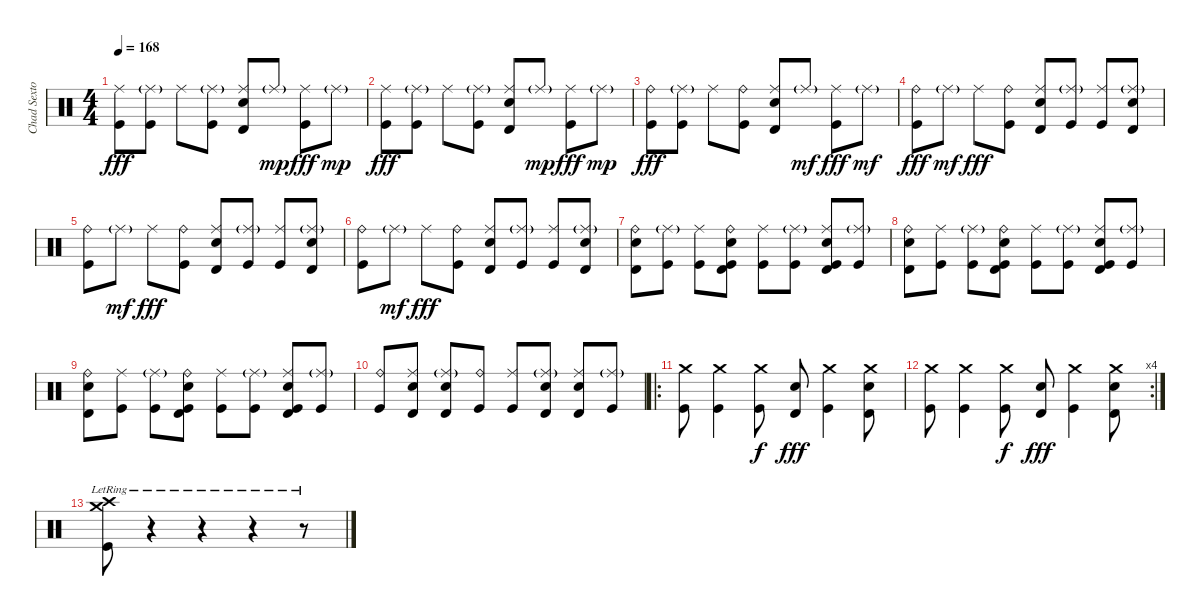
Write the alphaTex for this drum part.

\track ("Chad Sexton" "Chad Sexto") {instrument percussion}
\staff {score}
\articulation defaults
\ts (4 4)
\tempo 168
\clef neutral
\ks c
("Ride (middle)" "Kick (hit)").8{dy fff} ("Ride (middle)"{g} "Kick (hit)").8 "Ride (middle)".8 ("Ride (middle)"{g} "Kick (hit)").8 ("Ride (middle)" "Electric Snare (hit)" "Timbale high (hit)").8 "Ride (middle)"{g}.8{dy mp} ("Ride (middle)" "Kick (hit)").8{dy fff} "Ride (middle)"{g}.8{dy mp} |
("Ride (middle)" "Kick (hit)").8{dy fff} ("Ride (middle)"{g} "Kick (hit)").8 "Ride (middle)".8 ("Ride (middle)"{g} "Kick (hit)").8 ("Ride (middle)" "Electric Snare (hit)" "Timbale high (hit)").8 "Ride (middle)"{g}.8{dy mp} ("Ride (middle)" "Kick (hit)").8{dy fff} "Ride (middle)"{g}.8{dy mp} |
("Ride (bell)" "Kick (hit)").8{dy fff} ("Ride (middle)"{g} "Kick (hit)").8 "Ride (middle)".8 ("Ride (bell)" "Kick (hit)").8 ("Ride (middle)" "Electric Snare (hit)" "Timbale high (hit)").8 "Ride (middle)"{g}.8{dy mf} ("Ride (middle)" "Kick (hit)").8{dy fff} "Ride (middle)"{g}.8{dy mf} |
("Ride (bell)" "Kick (hit)").8{dy fff} "Ride (middle)"{g}.8{dy mf} "Ride (middle)".8{dy fff} ("Ride (bell)" "Kick (hit)").8 ("Ride (middle)" "Electric Snare (hit)" "Timbale high (hit)").8 ("Ride (middle)"{g} "Kick (hit)").8 ("Ride (middle)" "Kick (hit)").8 ("Ride (middle)"{g} "Electric Snare (hit)" "Timbale high (hit)").8 |
("Ride (bell)" "Kick (hit)").8 "Ride (middle)"{g}.8{dy mf} "Ride (middle)".8{dy fff} ("Ride (bell)" "Kick (hit)").8 ("Ride (middle)" "Electric Snare (hit)" "Timbale high (hit)").8 ("Ride (middle)"{g} "Kick (hit)").8 ("Ride (middle)" "Kick (hit)").8 ("Ride (middle)"{g} "Electric Snare (hit)" "Timbale high (hit)").8 |
("Ride (bell)" "Kick (hit)").8 "Ride (middle)"{g}.8{dy mf} "Ride (middle)".8{dy fff} ("Ride (bell)" "Kick (hit)").8 ("Ride (middle)" "Electric Snare (hit)" "Timbale high (hit)").8 ("Ride (middle)"{g} "Kick (hit)").8 ("Ride (middle)" "Kick (hit)").8 ("Ride (middle)"{g} "Electric Snare (hit)" "Timbale high (hit)").8 |
("Ride (bell)" "Electric Snare (hit)" "Timbale high (hit)").8 ("Ride (middle)"{g} "Kick (hit)").8 ("Ride (middle)" "Kick (hit)").8 ("Timbale high (hit)" "Ride (bell)" "Electric Snare (hit)" "Kick (hit)").8 ("Ride (middle)" "Kick (hit)").8 ("Ride (middle)"{g} "Kick (hit)").8 ("Timbale high (hit)" "Ride (middle)" "Electric Snare (hit)" "Kick (hit)").8 ("Ride (middle)"{g} "Kick (hit)").8 |
("Ride (bell)" "Electric Snare (hit)" "Timbale high (hit)").8 ("Ride (middle)" "Kick (hit)").8 ("Ride (middle)"{g} "Kick (hit)").8 ("Timbale high (hit)" "Ride (bell)" "Electric Snare (hit)" "Kick (hit)").8 ("Ride (middle)" "Kick (hit)").8 ("Ride (middle)"{g} "Kick (hit)").8 ("Timbale high (hit)" "Ride (middle)" "Electric Snare (hit)" "Kick (hit)").8 ("Ride (middle)"{g} "Kick (hit)").8 |
("Ride (bell)" "Electric Snare (hit)" "Timbale high (hit)").8 ("Ride (middle)" "Kick (hit)").8 ("Ride (middle)"{g} "Kick (hit)").8 ("Timbale high (hit)" "Ride (bell)" "Electric Snare (hit)" "Kick (hit)").8 ("Ride (middle)" "Kick (hit)").8 ("Ride (middle)"{g} "Kick (hit)").8 ("Timbale high (hit)" "Ride (middle)" "Electric Snare (hit)" "Kick (hit)").8 ("Ride (middle)"{g} "Kick (hit)").8 |
("Ride (bell)" "Kick (hit)").8 ("Ride (middle)" "Electric Snare (hit)" "Timbale high (hit)").8 ("Ride (middle)"{g} "Electric Snare (hit)" "Timbale high (hit)").8 ("Ride (bell)" "Kick (hit)").8 ("Ride (middle)" "Kick (hit)").8 ("Ride (middle)"{g} "Electric Snare (hit)" "Timbale high (hit)").8 ("Ride (middle)" "Electric Snare (hit)" "Timbale high (hit)").8 ("Ride (middle)"{g} "Kick (hit)").8 |
\ro
("Crash medium (hit)" "Kick (hit)").8 ("Crash medium (hit)" "Kick (hit)").4 ("Crash medium (hit)" "Kick (hit)").8{dy f} ("Electric Snare (hit)" "Timbale high (hit)").8{dy fff} ("Crash medium (hit)" "Kick (hit)").4 ("Crash medium (hit)" "Electric Snare (hit)" "Timbale high (hit)").8 |
\rc 4
("Crash medium (hit)" "Kick (hit)").8 ("Crash medium (hit)" "Kick (hit)").4 ("Crash medium (hit)" "Kick (hit)").8{dy f} ("Electric Snare (hit)" "Timbale high (hit)").8{dy fff} ("Crash medium (hit)" "Kick (hit)").4 ("Crash medium (hit)" "Electric Snare (hit)" "Timbale high (hit)").8 |
("Crash medium (hit)"{lr} "Crash high (hit)" "Kick (hit)"{lr}).8 r.4 r.4 r.4 r.8
